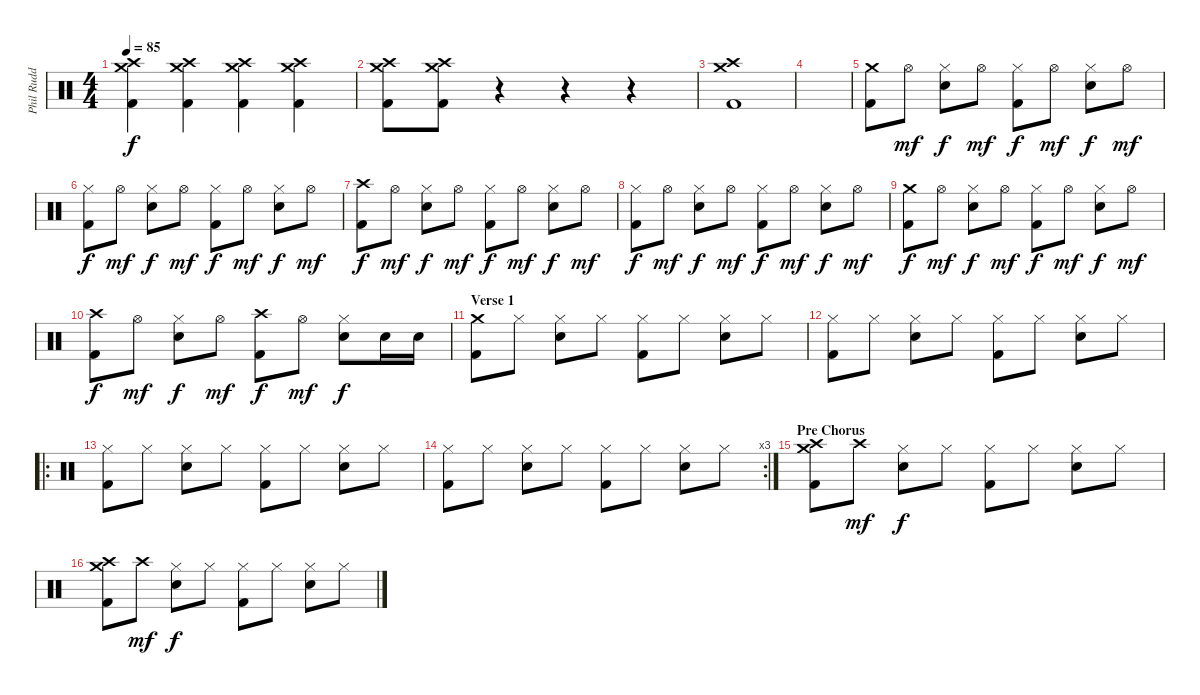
\track ("Phil Rudd" "Phil Rudd") {instrument percussion}
\staff {score}
\articulation defaults
\ts (4 4)
\tempo 85
\clef neutral
\ks c
("Crash high (hit)" "Crash medium (hit)" "Kick (hit) 2").4{dy f} ("Crash high (hit)" "Crash medium (hit)" "Kick (hit) 2").4 ("Crash high (hit)" "Crash medium (hit)" "Kick (hit) 2").4 ("Crash high (hit)" "Crash medium (hit)" "Kick (hit) 2").4 |
("Crash high (hit)" "Crash medium (hit)" "Kick (hit) 2").8 ("Crash high (hit)" "Crash medium (hit)" "Kick (hit) 2").8 r.4 r.4 r.4 |
("Crash high (hit)" "Crash medium (hit)" "Kick (hit) 2").1 |
|
("Crash medium (hit)" "Kick (hit) 2").8 "Hi-Hat (open)".8{dy mf} ("Hi-Hat (closed)" "Snare (hit) 2").8{dy f} "Hi-Hat (open)".8{dy mf} ("Hi-Hat (closed)" "Kick (hit) 2").8{dy f} "Hi-Hat (open)".8{dy mf} ("Hi-Hat (closed)" "Snare (hit) 2").8{dy f} "Hi-Hat (open)".8{dy mf} |
("Hi-Hat (closed)" "Kick (hit) 2").8{dy f} "Hi-Hat (open)".8{dy mf} ("Hi-Hat (closed)" "Snare (hit) 2").8{dy f} "Hi-Hat (open)".8{dy mf} ("Hi-Hat (closed)" "Kick (hit) 2").8{dy f} "Hi-Hat (open)".8{dy mf} ("Hi-Hat (closed)" "Snare (hit) 2").8{dy f} "Hi-Hat (open)".8{dy mf} |
("Crash high (hit)" "Kick (hit) 2").8{dy f} "Hi-Hat (open)".8{dy mf} ("Hi-Hat (closed)" "Snare (hit) 2").8{dy f} "Hi-Hat (open)".8{dy mf} ("Hi-Hat (closed)" "Kick (hit) 2").8{dy f} "Hi-Hat (open)".8{dy mf} ("Hi-Hat (closed)" "Snare (hit) 2").8{dy f} "Hi-Hat (open)".8{dy mf} |
("Hi-Hat (closed)" "Kick (hit) 2").8{dy f} "Hi-Hat (open)".8{dy mf} ("Hi-Hat (closed)" "Snare (hit) 2").8{dy f} "Hi-Hat (open)".8{dy mf} ("Hi-Hat (closed)" "Kick (hit) 2").8{dy f} "Hi-Hat (open)".8{dy mf} ("Hi-Hat (closed)" "Snare (hit) 2").8{dy f} "Hi-Hat (open)".8{dy mf} |
("Crash medium (hit)" "Kick (hit) 2").8{dy f} "Hi-Hat (open)".8{dy mf} ("Hi-Hat (closed)" "Snare (hit) 2").8{dy f} "Hi-Hat (open)".8{dy mf} ("Hi-Hat (closed)" "Kick (hit) 2").8{dy f} "Hi-Hat (open)".8{dy mf} ("Hi-Hat (closed)" "Snare (hit) 2").8{dy f} "Hi-Hat (open)".8{dy mf} |
("Crash high (hit)" "Kick (hit) 2").8{dy f} "Hi-Hat (open)".8{dy mf} ("Hi-Hat (closed)" "Snare (hit) 2").8{dy f} "Hi-Hat (open)".8{dy mf} ("Crash high (hit)" "Kick (hit) 2").8{dy f} "Hi-Hat (open)".8{dy mf} ("Hi-Hat (closed)" "Snare (hit) 2").8{dy f} "Snare (hit) 2".16 "Snare (hit) 2".16 |
\section ("" "Verse 1")
("Crash medium (hit)" "Kick (hit) 2").8 "Hi-Hat (closed)".8 ("Hi-Hat (closed)" "Snare (hit) 2").8 "Hi-Hat (closed)".8 ("Hi-Hat (closed)" "Kick (hit) 2").8 "Hi-Hat (closed)".8 ("Hi-Hat (closed)" "Snare (hit) 2").8 "Hi-Hat (closed)".8 |
("Hi-Hat (closed)" "Kick (hit) 2").8 "Hi-Hat (closed)".8 ("Hi-Hat (closed)" "Snare (hit) 2").8 "Hi-Hat (closed)".8 ("Hi-Hat (closed)" "Kick (hit) 2").8 "Hi-Hat (closed)".8 ("Hi-Hat (closed)" "Snare (hit) 2").8 "Hi-Hat (closed)".8 |
\ro
("Hi-Hat (closed)" "Kick (hit) 2").8 "Hi-Hat (closed)".8 ("Hi-Hat (closed)" "Snare (hit) 2").8 "Hi-Hat (closed)".8 ("Hi-Hat (closed)" "Kick (hit) 2").8 "Hi-Hat (closed)".8 ("Hi-Hat (closed)" "Snare (hit) 2").8 "Hi-Hat (closed)".8 |
\rc 3
("Hi-Hat (closed)" "Kick (hit) 2").8 "Hi-Hat (closed)".8 ("Hi-Hat (closed)" "Snare (hit) 2").8 "Hi-Hat (closed)".8 ("Hi-Hat (closed)" "Kick (hit) 2").8 "Hi-Hat (closed)".8 ("Hi-Hat (closed)" "Snare (hit) 2").8 "Hi-Hat (closed)".8 |
\section ("" "Pre Chorus")
("Crash high (hit)" "Crash medium (hit)" "Kick (hit) 2").8 "Crash high (hit)".8{dy mf} ("Hi-Hat (closed)" "Snare (hit) 2").8{dy f} "Hi-Hat (closed)".8 ("Hi-Hat (closed)" "Kick (hit) 2").8 "Hi-Hat (closed)".8 ("Hi-Hat (closed)" "Snare (hit) 2").8 "Hi-Hat (closed)".8 |
("Crash high (hit)" "Crash medium (hit)" "Kick (hit) 2").8 "Crash high (hit)".8{dy mf} ("Hi-Hat (closed)" "Snare (hit) 2").8{dy f} "Hi-Hat (closed)".8 ("Hi-Hat (closed)" "Kick (hit) 2").8 "Hi-Hat (closed)".8 ("Hi-Hat (closed)" "Snare (hit) 2").8 "Hi-Hat (closed)".8
